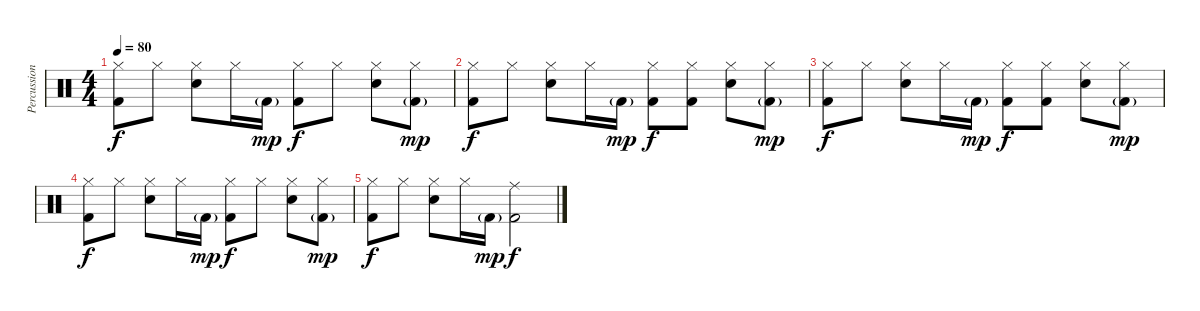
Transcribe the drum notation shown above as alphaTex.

\track ("Percussion" "Percussion") {instrument percussion}
\staff {score}
\articulation defaults
\ts (4 4)
\tempo 80
\clef neutral
\ks c
("Hi-Hat (closed)" "Kick (hit) 2").8{dy f} "Hi-Hat (closed)".8 ("Hi-Hat (closed)" "Snare (hit) 2").8 "Hi-Hat (closed)".16 "Kick (hit) 2"{g}.16{dy mp} ("Hi-Hat (closed)" "Kick (hit) 2").8{dy f} "Hi-Hat (closed)".8 ("Hi-Hat (closed)" "Snare (hit) 2").8 ("Hi-Hat (closed)" "Kick (hit) 2"{g}).8{dy mp} |
("Hi-Hat (closed)" "Kick (hit) 2").8{dy f} "Hi-Hat (closed)".8 ("Hi-Hat (closed)" "Snare (hit) 2").8 "Hi-Hat (closed)".16 "Kick (hit) 2"{g}.16{dy mp} ("Hi-Hat (closed)" "Kick (hit) 2").8{dy f} ("Hi-Hat (closed)" "Kick (hit) 2").8 ("Hi-Hat (closed)" "Snare (hit) 2").8 ("Hi-Hat (closed)" "Kick (hit) 2"{g}).8{dy mp} |
("Hi-Hat (closed)" "Kick (hit) 2").8{dy f} "Hi-Hat (closed)".8 ("Hi-Hat (closed)" "Snare (hit) 2").8 "Hi-Hat (closed)".16 "Kick (hit) 2"{g}.16{dy mp} ("Hi-Hat (closed)" "Kick (hit) 2").8{dy f} ("Hi-Hat (closed)" "Kick (hit) 2").8 ("Hi-Hat (closed)" "Snare (hit) 2").8 ("Hi-Hat (closed)" "Kick (hit) 2"{g}).8{dy mp} |
("Hi-Hat (closed)" "Kick (hit) 2").8{dy f} "Hi-Hat (closed)".8 ("Hi-Hat (closed)" "Snare (hit) 2").8 "Hi-Hat (closed)".16 "Kick (hit) 2"{g}.16{dy mp} ("Hi-Hat (closed)" "Kick (hit) 2").8{dy f} "Hi-Hat (closed)".8 ("Hi-Hat (closed)" "Snare (hit) 2").8 ("Hi-Hat (closed)" "Kick (hit) 2"{g}).8{dy mp} |
("Hi-Hat (closed)" "Kick (hit) 2").8{dy f} "Hi-Hat (closed)".8 ("Hi-Hat (closed)" "Snare (hit) 2").8 "Hi-Hat (closed)".16 "Kick (hit) 2"{g}.16{dy mp} ("Ride (middle)" "Kick (hit) 2").2{dy f}
